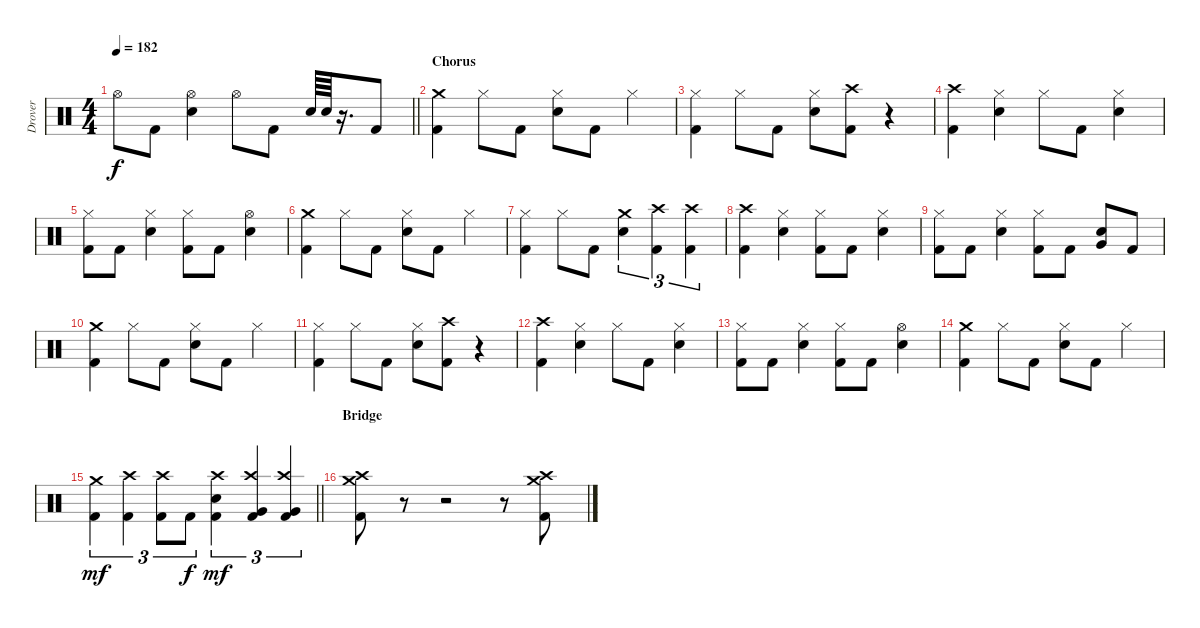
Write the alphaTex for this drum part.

\track ("Drover" "Drover") {instrument percussion}
\staff {score}
\articulation defaults
\ts (4 4)
\tempo 182
\clef neutral
\barLineRight lightlight
\ks c "Hi-Hat (open)".8{dy f} "Kick (hit) 2".8
("Hi-Hat (open)" "Snare (hit) 2").4 "Hi-Hat (open)".8 "Kick (hit) 2".8 "Snare (hit) 2".64 "Snare (hit) 2".64 r.16{d} "Kick (hit) 2".8 |
\section ("" "Chorus")
("Crash medium (hit)" "Kick (hit) 2").4 "Hi-Hat (closed)".8 "Kick (hit) 2".8 ("Hi-Hat (closed)" "Snare (hit) 2").8 "Kick (hit) 2".8 "Hi-Hat (closed)".4 |
("Hi-Hat (closed)" "Kick (hit) 2").4 "Hi-Hat (closed)".8 "Kick (hit) 2".8 ("Hi-Hat (closed)" "Snare (hit) 2").8 ("Crash high (hit)" "Kick (hit) 2").8 r.4 |
("Crash high (hit)" "Kick (hit) 2").4 ("Hi-Hat (closed)" "Snare (hit) 2").4 "Hi-Hat (closed)".8 "Kick (hit) 2".8 ("Hi-Hat (closed)" "Snare (hit) 2").4 |
("Hi-Hat (closed)" "Kick (hit) 2").8 "Kick (hit) 2".8 ("Hi-Hat (closed)" "Snare (hit) 2").4 ("Hi-Hat (closed)" "Kick (hit) 2").8 "Kick (hit) 2".8 ("Hi-Hat (open)" "Snare (hit) 2").4 |
("Crash medium (hit)" "Kick (hit) 2").4 "Hi-Hat (closed)".8 "Kick (hit) 2".8 ("Hi-Hat (closed)" "Snare (hit) 2").8 "Kick (hit) 2".8 "Hi-Hat (closed)".4 |
("Hi-Hat (closed)" "Kick (hit) 2").4 "Hi-Hat (closed)".8 "Kick (hit) 2".8 ("Crash medium (hit)" "Snare (hit) 2").4{tu (3 2)} ("Crash high (hit)" "Kick (hit) 2").4{tu (3 2)} ("Crash high (hit)" "Kick (hit) 2").4{tu (3 2)} |
("Crash high (hit)" "Kick (hit) 2").4 ("Hi-Hat (closed)" "Snare (hit) 2").4 ("Hi-Hat (closed)" "Kick (hit) 2").8 "Kick (hit) 2".8 ("Hi-Hat (closed)" "Snare (hit) 2").4 |
("Hi-Hat (closed)" "Kick (hit) 2").8 "Kick (hit) 2".8 ("Hi-Hat (closed)" "Snare (hit) 2").4 ("Hi-Hat (closed)" "Kick (hit) 2").8 "Kick (hit) 2".8 ("Very Low Tom (hit)" "Snare (hit) 2").8 "Kick (hit) 2".8 |
("Crash medium (hit)" "Kick (hit) 2").4 "Hi-Hat (closed)".8 "Kick (hit) 2".8 ("Hi-Hat (closed)" "Snare (hit) 2").8 "Kick (hit) 2".8 "Hi-Hat (closed)".4 |
("Hi-Hat (closed)" "Kick (hit) 2").4 "Hi-Hat (closed)".8 "Kick (hit) 2".8 ("Hi-Hat (closed)" "Snare (hit) 2").8 ("Crash high (hit)" "Kick (hit) 2").8 r.4 |
("Crash high (hit)" "Kick (hit) 2").4 ("Hi-Hat (closed)" "Snare (hit) 2").4 "Hi-Hat (closed)".8 "Kick (hit) 2".8 ("Hi-Hat (closed)" "Snare (hit) 2").4 |
("Hi-Hat (closed)" "Kick (hit) 2").8 "Kick (hit) 2".8 ("Hi-Hat (closed)" "Snare (hit) 2").4 ("Hi-Hat (closed)" "Kick (hit) 2").8 "Kick (hit) 2".8 ("Hi-Hat (open)" "Snare (hit) 2").4 |
("Crash medium (hit)" "Kick (hit) 2").4 "Hi-Hat (closed)".8 "Kick (hit) 2".8 ("Hi-Hat (closed)" "Snare (hit) 2").8 "Kick (hit) 2".8 "Hi-Hat (closed)".4 |
\barLineRight lightlight
("Crash medium (hit)" "Kick (hit) 2").4{tu (3 2) dy mf} ("Crash high (hit)" "Kick (hit) 2").4{tu (3 2)} ("Crash high (hit)" "Kick (hit) 2").8{tu (3 2)} "Kick (hit) 2".8{tu (3 2) dy f} ("Crash high (hit)" "Snare (hit) 2" "Kick (hit) 2").4{tu (3 2) dy mf} ("Crash high (hit)" "Very Low Tom (hit)" "Kick (hit) 2").4{tu (3 2)} ("Crash high (hit)" "Very Low Tom (hit)" "Kick (hit) 2").4{tu (3 2)} |
\section ("" "Bridge")
("Crash medium (hit)" "Crash high (hit)" "Kick (hit) 2").8 r.8 r.2 r.8 ("Crash medium (hit)" "Crash high (hit)" "Kick (hit) 2").8
